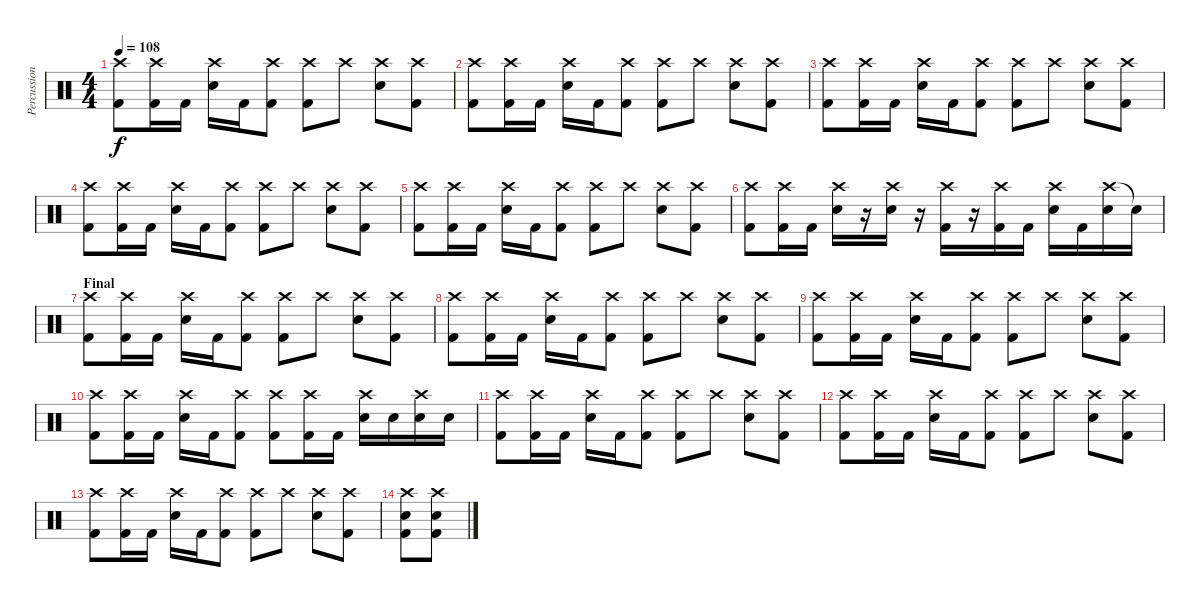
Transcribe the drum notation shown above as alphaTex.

\track ("Percussion" "Percussion") {instrument percussion}
\staff {score}
\articulation defaults
\ts (4 4)
\tempo 108
\clef neutral
\ks c
("Crash high (hit)" "Kick (hit) 2").8{dy f} ("Crash high (hit)" "Kick (hit) 2").16 "Kick (hit) 2".16 ("Crash high (hit)" "Snare (hit) 2").16 "Kick (hit) 2".16 ("Crash high (hit)" "Kick (hit) 2").8 ("Crash high (hit)" "Kick (hit) 2").8 "Crash high (hit)".8 ("Crash high (hit)" "Snare (hit) 2").8 ("Crash high (hit)" "Kick (hit) 2").8 |
("Crash high (hit)" "Kick (hit) 2").8 ("Crash high (hit)" "Kick (hit) 2").16 "Kick (hit) 2".16 ("Crash high (hit)" "Snare (hit) 2").16 "Kick (hit) 2".16 ("Crash high (hit)" "Kick (hit) 2").8 ("Crash high (hit)" "Kick (hit) 2").8 "Crash high (hit)".8 ("Crash high (hit)" "Snare (hit) 2").8 ("Crash high (hit)" "Kick (hit) 2").8 |
("Crash high (hit)" "Kick (hit) 2").8 ("Crash high (hit)" "Kick (hit) 2").16 "Kick (hit) 2".16 ("Crash high (hit)" "Snare (hit) 2").16 "Kick (hit) 2".16 ("Crash high (hit)" "Kick (hit) 2").8 ("Crash high (hit)" "Kick (hit) 2").8 "Crash high (hit)".8 ("Crash high (hit)" "Snare (hit) 2").8 ("Crash high (hit)" "Kick (hit) 2").8 |
("Crash high (hit)" "Kick (hit) 2").8 ("Crash high (hit)" "Kick (hit) 2").16 "Kick (hit) 2".16 ("Crash high (hit)" "Snare (hit) 2").16 "Kick (hit) 2".16 ("Crash high (hit)" "Kick (hit) 2").8 ("Crash high (hit)" "Kick (hit) 2").8 "Crash high (hit)".8 ("Crash high (hit)" "Snare (hit) 2").8 ("Crash high (hit)" "Kick (hit) 2").8 |
("Crash high (hit)" "Kick (hit) 2").8 ("Crash high (hit)" "Kick (hit) 2").16 "Kick (hit) 2".16 ("Crash high (hit)" "Snare (hit) 2").16 "Kick (hit) 2".16 ("Crash high (hit)" "Kick (hit) 2").8 ("Crash high (hit)" "Kick (hit) 2").8 "Crash high (hit)".8 ("Crash high (hit)" "Snare (hit) 2").8 ("Crash high (hit)" "Kick (hit) 2").8 |
("Crash high (hit)" "Kick (hit) 2").8 ("Crash high (hit)" "Kick (hit) 2").16 "Kick (hit) 2".16 ("Crash high (hit)" "Snare (hit) 2").16 r.16 ("Crash high (hit)" "Snare (hit) 2").16 r.16 ("Crash high (hit)" "Kick (hit) 2").16 r.16 ("Crash high (hit)" "Kick (hit) 2").16 "Kick (hit) 2".16 ("Crash high (hit)" "Snare (hit) 2").16 "Kick (hit) 2".16 ("Crash high (hit)" "Snare (hit) 2").16 "Snare (hit)"{t}.16 |
\section ("" "Final")
("Crash high (hit)" "Kick (hit) 2").8 ("Crash high (hit)" "Kick (hit) 2").16 "Kick (hit) 2".16 ("Crash high (hit)" "Snare (hit) 2").16 "Kick (hit) 2".16 ("Crash high (hit)" "Kick (hit) 2").8 ("Crash high (hit)" "Kick (hit) 2").8 "Crash high (hit)".8 ("Crash high (hit)" "Snare (hit) 2").8 ("Crash high (hit)" "Kick (hit) 2").8 |
("Crash high (hit)" "Kick (hit) 2").8 ("Crash high (hit)" "Kick (hit) 2").16 "Kick (hit) 2".16 ("Crash high (hit)" "Snare (hit) 2").16 "Kick (hit) 2".16 ("Crash high (hit)" "Kick (hit) 2").8 ("Crash high (hit)" "Kick (hit) 2").8 "Crash high (hit)".8 ("Crash high (hit)" "Snare (hit) 2").8 ("Crash high (hit)" "Kick (hit) 2").8 |
("Crash high (hit)" "Kick (hit) 2").8 ("Crash high (hit)" "Kick (hit) 2").16 "Kick (hit) 2".16 ("Crash high (hit)" "Snare (hit) 2").16 "Kick (hit) 2".16 ("Crash high (hit)" "Kick (hit) 2").8 ("Crash high (hit)" "Kick (hit) 2").8 "Crash high (hit)".8 ("Crash high (hit)" "Snare (hit) 2").8 ("Crash high (hit)" "Kick (hit) 2").8 |
("Crash high (hit)" "Kick (hit) 2").8 ("Crash high (hit)" "Kick (hit) 2").16 "Kick (hit) 2".16 ("Crash high (hit)" "Snare (hit) 2").16 "Kick (hit) 2".16 ("Crash high (hit)" "Kick (hit) 2").8 ("Crash high (hit)" "Kick (hit) 2").8 ("Crash high (hit)" "Kick (hit) 2").16 "Kick (hit) 2".16 ("Crash high (hit)" "Snare (hit) 2").16 "Snare (hit) 2".16 ("Crash high (hit)" "Snare (hit) 2").16 "Snare (hit) 2".16 |
("Crash high (hit)" "Kick (hit) 2").8 ("Crash high (hit)" "Kick (hit) 2").16 "Kick (hit) 2".16 ("Crash high (hit)" "Snare (hit) 2").16 "Kick (hit) 2".16 ("Crash high (hit)" "Kick (hit) 2").8 ("Crash high (hit)" "Kick (hit) 2").8 "Crash high (hit)".8 ("Crash high (hit)" "Snare (hit) 2").8 ("Crash high (hit)" "Kick (hit) 2").8 |
("Crash high (hit)" "Kick (hit) 2").8 ("Crash high (hit)" "Kick (hit) 2").16 "Kick (hit) 2".16 ("Crash high (hit)" "Snare (hit) 2").16 "Kick (hit) 2".16 ("Crash high (hit)" "Kick (hit) 2").8 ("Crash high (hit)" "Kick (hit) 2").8 "Crash high (hit)".8 ("Crash high (hit)" "Snare (hit) 2").8 ("Crash high (hit)" "Kick (hit) 2").8 |
("Crash high (hit)" "Kick (hit) 2").8 ("Crash high (hit)" "Kick (hit) 2").16 "Kick (hit) 2".16 ("Crash high (hit)" "Snare (hit) 2").16 "Kick (hit) 2".16 ("Crash high (hit)" "Kick (hit) 2").8 ("Crash high (hit)" "Kick (hit) 2").8 "Crash high (hit)".8 ("Crash high (hit)" "Snare (hit) 2").8 ("Crash high (hit)" "Kick (hit) 2").8 |
("Crash high (hit)" "Kick (hit) 2" "Snare (hit) 2").8 ("Crash high (hit)" "Kick (hit) 2" "Snare (hit) 2").8
